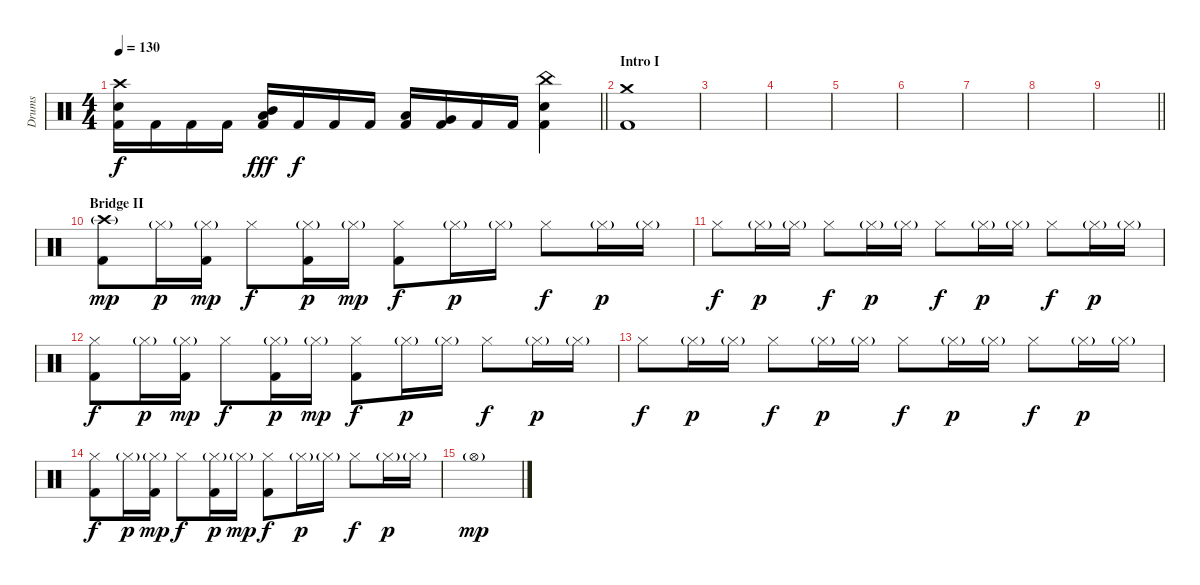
\track ("Drums" "Drums") {instrument percussion}
\staff {score}
\articulation defaults
\ts (4 4)
\tempo 130
\clef neutral
\barLineRight lightlight
\ks c
("Crash high (hit)" "Electric Snare (hit)" "Kick (hit) 2").16{dy f} "Kick (hit) 2".16 "Kick (hit) 2".16 "Kick (hit) 2".16 ("Mid Tom (hit)" "Low Tom (hit)" "Kick (hit) 2").16{dy fff} "Kick (hit) 2".16{dy f} "Kick (hit) 2".16 "Kick (hit) 2".16 ("Low Tom (hit)" "Kick (hit) 2").16 ("Very Low Tom (hit)" "Kick (hit) 2").16 "Kick (hit) 2".16 "Kick (hit) 2".16 ("China (hit)" "Electric Snare (hit)" "Kick (hit) 2").4 |
\section ("" "Intro I")
("Crash medium (hit)" "Kick (hit) 2").1 |
|
|
|
|
|
|
\barLineRight lightlight
|
\section ("" "Bridge II")
("Crash high (hit)"{g} "Kick (hit) 2").8{dy mp} "Hi-Hat (closed)"{g}.16{dy p} ("Hi-Hat (closed)"{g} "Kick (hit) 2").16{dy mp} "Hi-Hat (closed)".8{dy f} ("Hi-Hat (closed)"{g} "Kick (hit) 2").16{dy p} "Hi-Hat (closed)"{g}.16{dy mp} ("Hi-Hat (closed)" "Kick (hit) 2").8{dy f} "Hi-Hat (closed)"{g}.16{dy p} "Hi-Hat (closed)"{g}.16 "Hi-Hat (closed)".8{dy f} "Hi-Hat (closed)"{g}.16{dy p} "Hi-Hat (closed)"{g}.16 |
"Hi-Hat (closed)".8{dy f} "Hi-Hat (closed)"{g}.16{dy p} "Hi-Hat (closed)"{g}.16 "Hi-Hat (closed)".8{dy f} "Hi-Hat (closed)"{g}.16{dy p} "Hi-Hat (closed)"{g}.16 "Hi-Hat (closed)".8{dy f} "Hi-Hat (closed)"{g}.16{dy p} "Hi-Hat (closed)"{g}.16 "Hi-Hat (closed)".8{dy f} "Hi-Hat (closed)"{g}.16{dy p} "Hi-Hat (closed)"{g}.16 |
("Hi-Hat (closed)" "Kick (hit) 2").8{dy f} "Hi-Hat (closed)"{g}.16{dy p} ("Hi-Hat (closed)"{g} "Kick (hit) 2").16{dy mp} "Hi-Hat (closed)".8{dy f} ("Hi-Hat (closed)"{g} "Kick (hit) 2").16{dy p} "Hi-Hat (closed)"{g}.16{dy mp} ("Hi-Hat (closed)" "Kick (hit) 2").8{dy f} "Hi-Hat (closed)"{g}.16{dy p} "Hi-Hat (closed)"{g}.16 "Hi-Hat (closed)".8{dy f} "Hi-Hat (closed)"{g}.16{dy p} "Hi-Hat (closed)"{g}.16 |
"Hi-Hat (closed)".8{dy f} "Hi-Hat (closed)"{g}.16{dy p} "Hi-Hat (closed)"{g}.16 "Hi-Hat (closed)".8{dy f} "Hi-Hat (closed)"{g}.16{dy p} "Hi-Hat (closed)"{g}.16 "Hi-Hat (closed)".8{dy f} "Hi-Hat (closed)"{g}.16{dy p} "Hi-Hat (closed)"{g}.16 "Hi-Hat (closed)".8{dy f} "Hi-Hat (closed)"{g}.16{dy p} "Hi-Hat (closed)"{g}.16 |
("Hi-Hat (closed)" "Kick (hit) 2").8{dy f} "Hi-Hat (closed)"{g}.16{dy p} ("Hi-Hat (closed)"{g} "Kick (hit) 2").16{dy mp} "Hi-Hat (closed)".8{dy f} ("Hi-Hat (closed)"{g} "Kick (hit) 2").16{dy p} "Hi-Hat (closed)"{g}.16{dy mp} ("Hi-Hat (closed)" "Kick (hit) 2").8{dy f} "Hi-Hat (closed)"{g}.16{dy p} "Hi-Hat (closed)"{g}.16 "Hi-Hat (closed)".8{dy f} "Hi-Hat (closed)"{g}.16{dy p} "Hi-Hat (closed)"{g}.16 |
"Hi-Hat (open)"{g}.1{dy mp}
